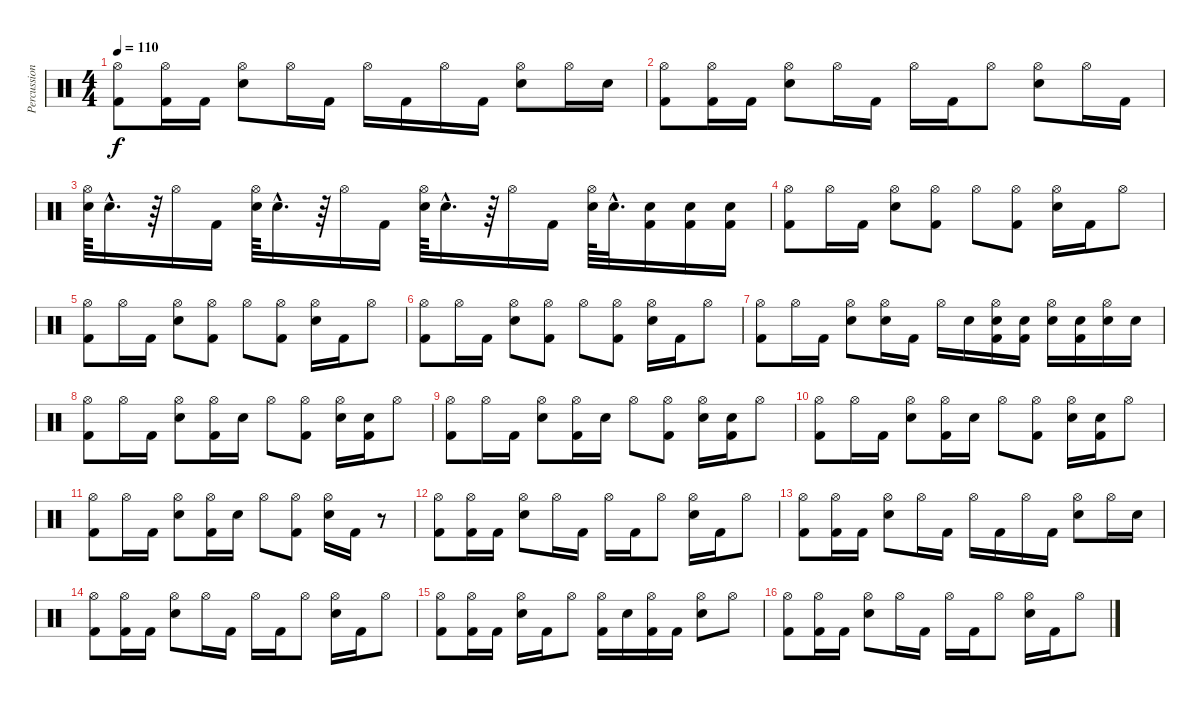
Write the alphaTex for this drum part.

\track ("Percussions" "Percussion") {instrument percussion}
\staff {score}
\articulation defaults
\ts (4 4)
\tempo 110
\clef neutral
\ks c
("Hi-Hat (open)" "Kick (hit) 2").8{dy f} ("Hi-Hat (open)" "Kick (hit) 2").16 "Kick (hit) 2".16 ("Electric Snare (hit)" "Hi-Hat (open)").8 "Hi-Hat (open)".16 "Kick (hit) 2".16 "Hi-Hat (open)".16 "Kick (hit) 2".16 "Hi-Hat (open)".16 "Kick (hit) 2".16 ("Electric Snare (hit)" "Hi-Hat (open)").8 "Hi-Hat (open)".16 "Electric Snare (hit)".16 |
("Hi-Hat (open)" "Kick (hit) 2").8 ("Hi-Hat (open)" "Kick (hit) 2").16 "Kick (hit) 2".16 ("Electric Snare (hit)" "Hi-Hat (open)").8 "Hi-Hat (open)".16 "Kick (hit) 2".16 "Hi-Hat (open)".16 "Kick (hit) 2".16 "Hi-Hat (open)".8 ("Electric Snare (hit)" "Hi-Hat (open)").8 "Hi-Hat (open)".16 "Kick (hit) 2".16 |
("Electric Snare (hit)" "Hi-Hat (open)").64 "Electric Snare (hit)"{hac}.16{d} r.64 "Hi-Hat (open)".16 "Kick (hit) 2".16 ("Electric Snare (hit)" "Hi-Hat (open)").64 "Electric Snare (hit)"{hac}.16{d} r.64 "Hi-Hat (open)".16 "Kick (hit) 2".16 ("Electric Snare (hit)" "Hi-Hat (open)").64 "Electric Snare (hit)"{hac}.16{d} r.64 "Hi-Hat (open)".16 "Kick (hit) 2".16 ("Electric Snare (hit)" "Hi-Hat (open)").64 "Electric Snare (hit)"{hac}.32{d} ("Electric Snare (hit)" "Kick (hit) 2").16 ("Electric Snare (hit)" "Kick (hit) 2").16 ("Electric Snare (hit)" "Kick (hit) 2").16 |
("Hi-Hat (open)" "Kick (hit) 2").8 "Hi-Hat (open)".16 "Kick (hit) 2".16 ("Electric Snare (hit)" "Hi-Hat (open)").8 ("Hi-Hat (open)" "Kick (hit) 2").8 "Hi-Hat (open)".8 ("Hi-Hat (open)" "Kick (hit) 2").8 ("Electric Snare (hit)" "Hi-Hat (open)").16 "Kick (hit) 2".16 "Hi-Hat (open)".8 |
("Hi-Hat (open)" "Kick (hit) 2").8 "Hi-Hat (open)".16 "Kick (hit) 2".16 ("Electric Snare (hit)" "Hi-Hat (open)").8 ("Hi-Hat (open)" "Kick (hit) 2").8 "Hi-Hat (open)".8 ("Hi-Hat (open)" "Kick (hit) 2").8 ("Electric Snare (hit)" "Hi-Hat (open)").16 "Kick (hit) 2".16 "Hi-Hat (open)".8 |
("Hi-Hat (open)" "Kick (hit) 2").8 "Hi-Hat (open)".16 "Kick (hit) 2".16 ("Electric Snare (hit)" "Hi-Hat (open)").8 ("Hi-Hat (open)" "Kick (hit) 2").8 "Hi-Hat (open)".8 ("Hi-Hat (open)" "Kick (hit) 2").8 ("Electric Snare (hit)" "Hi-Hat (open)").16 "Kick (hit) 2".16 "Hi-Hat (open)".8 |
("Hi-Hat (open)" "Kick (hit) 2").8 "Hi-Hat (open)".16 "Kick (hit) 2".16 ("Electric Snare (hit)" "Hi-Hat (open)").8 ("Electric Snare (hit)" "Hi-Hat (open)").16 "Kick (hit) 2".16 "Hi-Hat (open)".16 "Electric Snare (hit)".16 ("Electric Snare (hit)" "Hi-Hat (open)" "Kick (hit) 2").16 ("Electric Snare (hit)" "Kick (hit) 2").16 ("Electric Snare (hit)" "Hi-Hat (open)").16 ("Electric Snare (hit)" "Kick (hit) 2").16 ("Electric Snare (hit)" "Hi-Hat (open)").16 "Electric Snare (hit)".16 |
("Hi-Hat (open)" "Kick (hit) 2").8 "Hi-Hat (open)".16 "Kick (hit) 2".16 ("Electric Snare (hit)" "Hi-Hat (open)").8 ("Hi-Hat (open)" "Kick (hit) 2").16 "Electric Snare (hit)".16 "Hi-Hat (open)".8 ("Hi-Hat (open)" "Kick (hit) 2").8 ("Electric Snare (hit)" "Hi-Hat (open)").16 ("Electric Snare (hit)" "Kick (hit) 2").16 "Hi-Hat (open)".8 |
("Hi-Hat (open)" "Kick (hit) 2").8 "Hi-Hat (open)".16 "Kick (hit) 2".16 ("Electric Snare (hit)" "Hi-Hat (open)").8 ("Hi-Hat (open)" "Kick (hit) 2").16 "Electric Snare (hit)".16 "Hi-Hat (open)".8 ("Hi-Hat (open)" "Kick (hit) 2").8 ("Electric Snare (hit)" "Hi-Hat (open)").16 ("Electric Snare (hit)" "Kick (hit) 2").16 "Hi-Hat (open)".8 |
("Hi-Hat (open)" "Kick (hit) 2").8 "Hi-Hat (open)".16 "Kick (hit) 2".16 ("Electric Snare (hit)" "Hi-Hat (open)").8 ("Hi-Hat (open)" "Kick (hit) 2").16 "Electric Snare (hit)".16 "Hi-Hat (open)".8 ("Hi-Hat (open)" "Kick (hit) 2").8 ("Electric Snare (hit)" "Hi-Hat (open)").16 ("Electric Snare (hit)" "Kick (hit) 2").16 "Hi-Hat (open)".8 |
("Hi-Hat (open)" "Kick (hit) 2").8 "Hi-Hat (open)".16 "Kick (hit) 2".16 ("Electric Snare (hit)" "Hi-Hat (open)").8 ("Hi-Hat (open)" "Kick (hit) 2").16 "Electric Snare (hit)".16 "Hi-Hat (open)".8 ("Hi-Hat (open)" "Kick (hit) 2").8 ("Electric Snare (hit)" "Hi-Hat (open)").16 "Kick (hit) 2".16 r.8 |
("Hi-Hat (open)" "Kick (hit) 2").8 ("Hi-Hat (open)" "Kick (hit) 2").16 "Kick (hit) 2".16 ("Electric Snare (hit)" "Hi-Hat (open)").8 "Hi-Hat (open)".16 "Kick (hit) 2".16 "Hi-Hat (open)".16 "Kick (hit) 2".16 "Hi-Hat (open)".8 ("Electric Snare (hit)" "Hi-Hat (open)").16 "Kick (hit) 2".16 "Hi-Hat (open)".8 |
("Hi-Hat (open)" "Kick (hit) 2").8 ("Hi-Hat (open)" "Kick (hit) 2").16 "Kick (hit) 2".16 ("Electric Snare (hit)" "Hi-Hat (open)").8 "Hi-Hat (open)".16 "Kick (hit) 2".16 "Hi-Hat (open)".16 "Kick (hit) 2".16 "Hi-Hat (open)".16 "Kick (hit) 2".16 ("Electric Snare (hit)" "Hi-Hat (open)").8 "Hi-Hat (open)".16 "Electric Snare (hit)".16 |
("Hi-Hat (open)" "Kick (hit) 2").8 ("Hi-Hat (open)" "Kick (hit) 2").16 "Kick (hit) 2".16 ("Electric Snare (hit)" "Hi-Hat (open)").8 "Hi-Hat (open)".16 "Kick (hit) 2".16 "Hi-Hat (open)".16 "Kick (hit) 2".16 "Hi-Hat (open)".8 ("Electric Snare (hit)" "Hi-Hat (open)").16 "Kick (hit) 2".16 "Hi-Hat (open)".8 |
("Hi-Hat (open)" "Kick (hit) 2").8 ("Hi-Hat (open)" "Kick (hit) 2").16 "Kick (hit) 2".16 ("Electric Snare (hit)" "Hi-Hat (open)").16 "Kick (hit) 2".16 "Hi-Hat (open)".8 ("Hi-Hat (open)" "Kick (hit) 2").16 "Electric Snare (hit)".16 ("Hi-Hat (open)" "Kick (hit) 2").16 "Kick (hit) 2".16 ("Electric Snare (hit)" "Hi-Hat (open)").8 "Hi-Hat (open)".8 |
("Hi-Hat (open)" "Kick (hit) 2").8 ("Hi-Hat (open)" "Kick (hit) 2").16 "Kick (hit) 2".16 ("Electric Snare (hit)" "Hi-Hat (open)").8 "Hi-Hat (open)".16 "Kick (hit) 2".16 "Hi-Hat (open)".16 "Kick (hit) 2".16 "Hi-Hat (open)".8 ("Electric Snare (hit)" "Hi-Hat (open)").16 "Kick (hit) 2".16 "Hi-Hat (open)".8
